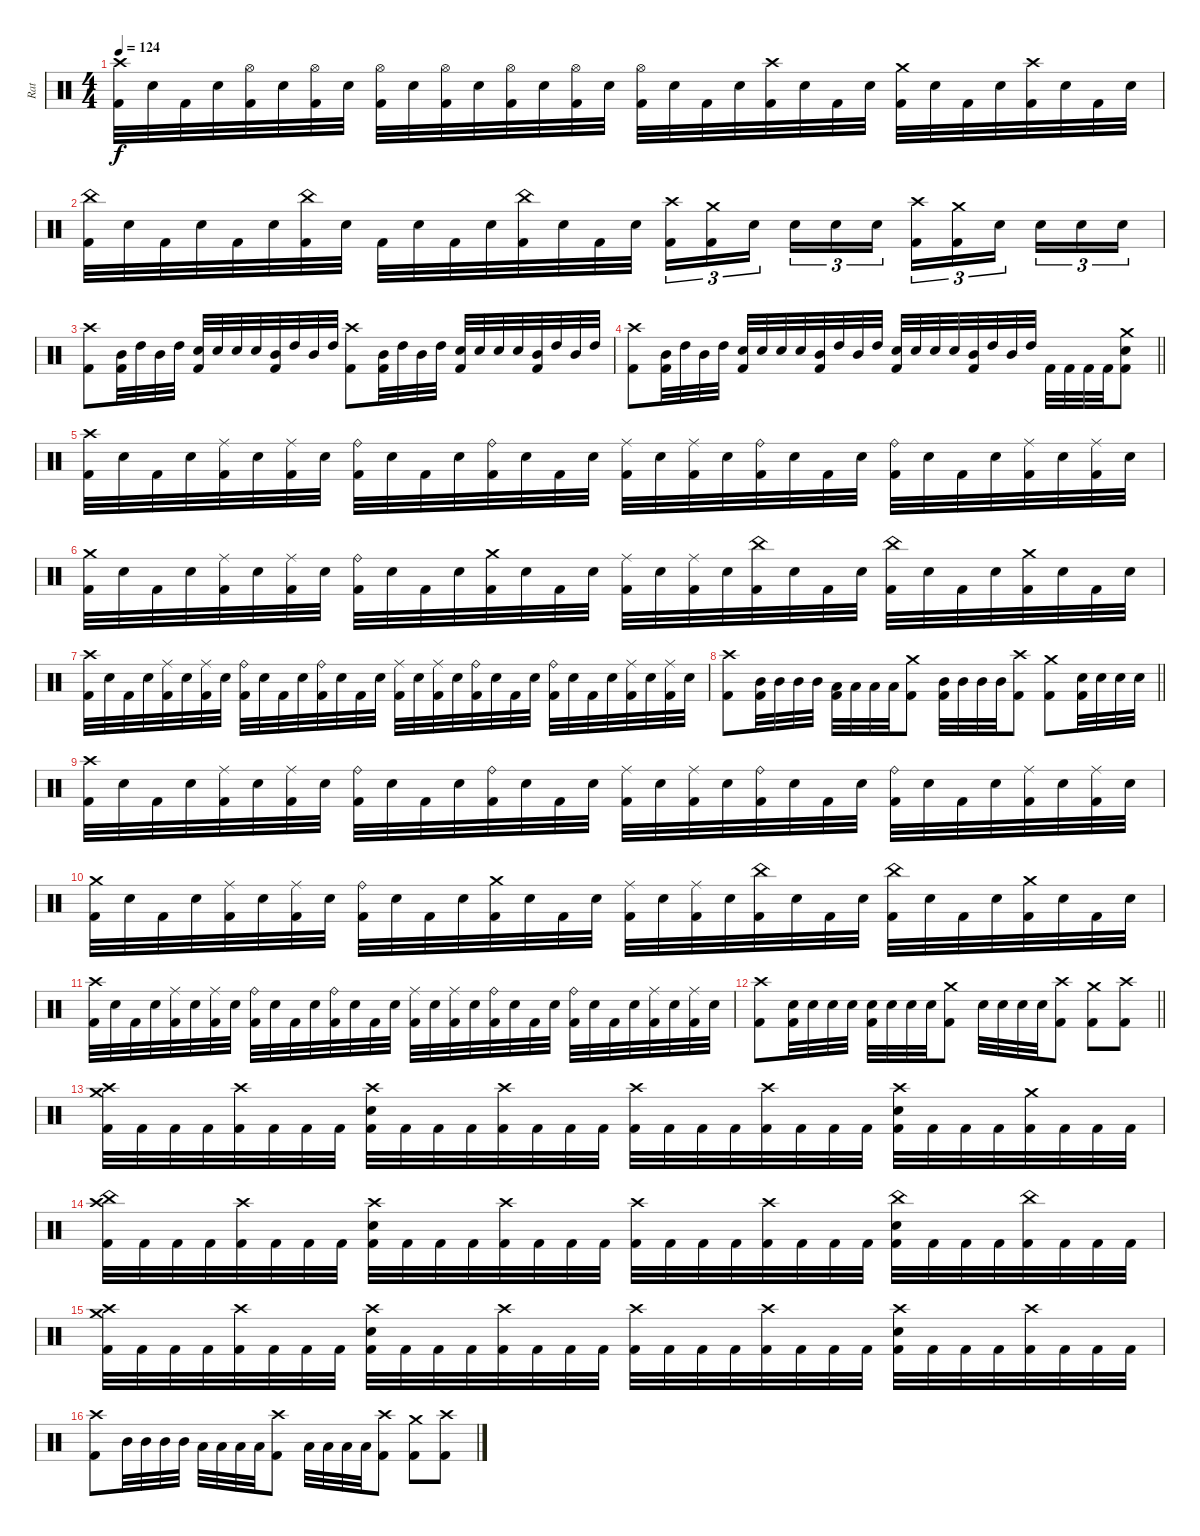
\track ("Rat" "Rat") {instrument percussion}
\staff {score}
\articulation defaults
\ts (4 4)
\tempo 124
\clef neutral
\ks c
("Crash high (hit)" "Kick (hit) 2").32{dy f} "Electric Snare (hit)".32 "Kick (hit) 2".32 "Electric Snare (hit)".32 ("Hi-Hat (open)" "Kick (hit) 2").32 "Electric Snare (hit)".32 ("Hi-Hat (open)" "Kick (hit) 2").32 "Electric Snare (hit)".32 ("Hi-Hat (open)" "Kick (hit) 2").32 "Electric Snare (hit)".32 ("Hi-Hat (open)" "Kick (hit) 2").32 "Electric Snare (hit)".32 ("Hi-Hat (open)" "Kick (hit) 2").32 "Electric Snare (hit)".32 ("Hi-Hat (open)" "Kick (hit) 2").32 "Electric Snare (hit)".32 ("Hi-Hat (open)" "Kick (hit) 2").32 "Electric Snare (hit)".32 "Kick (hit) 2".32 "Electric Snare (hit)".32 ("Crash high (hit)" "Kick (hit) 2").32 "Electric Snare (hit)".32 "Kick (hit) 2".32 "Electric Snare (hit)".32 ("Crash medium (hit)" "Kick (hit) 2").32 "Electric Snare (hit)".32 "Kick (hit) 2".32 "Electric Snare (hit)".32 ("Crash high (hit)" "Kick (hit) 2").32 "Electric Snare (hit)".32 "Kick (hit) 2".32 "Electric Snare (hit)".32 |
("China (hit)" "Kick (hit) 2").32 "Electric Snare (hit)".32 "Kick (hit) 2".32 "Electric Snare (hit)".32 "Kick (hit) 2".32 "Electric Snare (hit)".32 ("China (hit)" "Kick (hit) 2").32 "Electric Snare (hit)".32 "Kick (hit) 2".32 "Electric Snare (hit)".32 "Kick (hit) 2".32 "Electric Snare (hit)".32 ("China (hit)" "Kick (hit) 2").32 "Electric Snare (hit)".32 "Kick (hit) 2".32 "Electric Snare (hit)".32 ("Crash high (hit)" "Kick (hit) 2").16{tu (3 2)} ("Crash medium (hit)" "Kick (hit) 2").16{tu (3 2)} "Electric Snare (hit)".16{tu (3 2) beam splitsecondary} "Electric Snare (hit)".16{tu (3 2)} "Electric Snare (hit)".16{tu (3 2)} "Electric Snare (hit)".16{tu (3 2)} ("Crash high (hit)" "Kick (hit) 2").16{tu (3 2)} ("Crash medium (hit)" "Kick (hit) 2").16{tu (3 2)} "Electric Snare (hit)".16{tu (3 2) beam splitsecondary} "Electric Snare (hit)".16{tu (3 2)} "Electric Snare (hit)".16{tu (3 2)} "Electric Snare (hit)".16{tu (3 2)} |
("Crash high (hit)" "Kick (hit) 2").8 ("Mid Tom (hit)" "Kick (hit) 2").32 "High Tom (hit)".32 "Mid Tom (hit)".32 "High Tom (hit)".32 ("Electric Snare (hit)" "Kick (hit) 2").32 "Electric Snare (hit)".32 "Electric Snare (hit)".32 "Electric Snare (hit)".32 ("Mid Tom (hit)" "Kick (hit) 2").32 "High Tom (hit)".32 "Mid Tom (hit)".32 "High Tom (hit)".32 ("Crash high (hit)" "Kick (hit) 2").8 ("Mid Tom (hit)" "Kick (hit) 2").32 "High Tom (hit)".32 "Mid Tom (hit)".32 "High Tom (hit)".32 ("Electric Snare (hit)" "Kick (hit) 2").32 "Electric Snare (hit)".32 "Electric Snare (hit)".32 "Electric Snare (hit)".32 ("Mid Tom (hit)" "Kick (hit) 2").32 "High Tom (hit)".32 "Mid Tom (hit)".32 "High Tom (hit)".32 |
\barLineRight lightlight
("Crash high (hit)" "Kick (hit) 2").8 ("Mid Tom (hit)" "Kick (hit) 2").32 "High Tom (hit)".32 "Mid Tom (hit)".32 "High Tom (hit)".32 ("Electric Snare (hit)" "Kick (hit) 2").32 "Electric Snare (hit)".32 "Electric Snare (hit)".32 "Electric Snare (hit)".32 ("Mid Tom (hit)" "Kick (hit) 2").32 "High Tom (hit)".32 "Mid Tom (hit)".32 "High Tom (hit)".32 ("Electric Snare (hit)" "Kick (hit) 2").32 "Electric Snare (hit)".32 "Electric Snare (hit)".32 "Electric Snare (hit)".32 ("Mid Tom (hit)" "Kick (hit) 2").32 "High Tom (hit)".32 "Mid Tom (hit)".32 "High Tom (hit)".32 "Kick (hit) 2".32 "Kick (hit) 2".32 "Kick (hit) 2".32 "Kick (hit) 2".32 ("Crash medium (hit)" "Electric Snare (hit)" "Kick (hit) 2").8 |
("Crash high (hit)" "Kick (hit) 2").32 "Electric Snare (hit)".32 "Kick (hit) 2".32 "Electric Snare (hit)".32 ("Ride (middle)" "Kick (hit) 2").32 "Electric Snare (hit)".32 ("Ride (middle)" "Kick (hit) 2").32 "Electric Snare (hit)".32 ("Ride (bell)" "Kick (hit) 2").32 "Electric Snare (hit)".32 "Kick (hit) 2".32 "Electric Snare (hit)".32 ("Ride (bell)" "Kick (hit) 2").32 "Electric Snare (hit)".32 "Kick (hit) 2".32 "Electric Snare (hit)".32 ("Ride (middle)" "Kick (hit) 2").32 "Electric Snare (hit)".32 ("Ride (middle)" "Kick (hit) 2").32 "Electric Snare (hit)".32 ("Ride (bell)" "Kick (hit) 2").32 "Electric Snare (hit)".32 "Kick (hit) 2".32 "Electric Snare (hit)".32 ("Ride (bell)" "Kick (hit) 2").32 "Electric Snare (hit)".32 "Kick (hit) 2".32 "Electric Snare (hit)".32 ("Ride (middle)" "Kick (hit) 2").32 "Electric Snare (hit)".32 ("Ride (middle)" "Kick (hit) 2").32 "Electric Snare (hit)".32 |
("Crash medium (hit)" "Kick (hit) 2").32 "Electric Snare (hit)".32 "Kick (hit) 2".32 "Electric Snare (hit)".32 ("Ride (middle)" "Kick (hit) 2").32 "Electric Snare (hit)".32 ("Ride (middle)" "Kick (hit) 2").32 "Electric Snare (hit)".32 ("Ride (bell)" "Kick (hit) 2").32 "Electric Snare (hit)".32 "Kick (hit) 2".32 "Electric Snare (hit)".32 ("Crash medium (hit)" "Kick (hit) 2").32 "Electric Snare (hit)".32 "Kick (hit) 2".32 "Electric Snare (hit)".32 ("Ride (middle)" "Kick (hit) 2").32 "Electric Snare (hit)".32 ("Ride (middle)" "Kick (hit) 2").32 "Electric Snare (hit)".32 ("China (hit)" "Kick (hit) 2").32 "Electric Snare (hit)".32 "Kick (hit) 2".32 "Electric Snare (hit)".32 ("China (hit)" "Kick (hit) 2").32 "Electric Snare (hit)".32 "Kick (hit) 2".32 "Electric Snare (hit)".32 ("Crash medium (hit)" "Kick (hit) 2").32 "Electric Snare (hit)".32 "Kick (hit) 2".32 "Electric Snare (hit)".32 |
("Crash high (hit)" "Kick (hit) 2").32 "Electric Snare (hit)".32 "Kick (hit) 2".32 "Electric Snare (hit)".32 ("Ride (middle)" "Kick (hit) 2").32 "Electric Snare (hit)".32 ("Ride (middle)" "Kick (hit) 2").32 "Electric Snare (hit)".32 ("Ride (bell)" "Kick (hit) 2").32 "Electric Snare (hit)".32 "Kick (hit) 2".32 "Electric Snare (hit)".32 ("Ride (bell)" "Kick (hit) 2").32 "Electric Snare (hit)".32 "Kick (hit) 2".32 "Electric Snare (hit)".32 ("Ride (middle)" "Kick (hit) 2").32 "Electric Snare (hit)".32 ("Ride (middle)" "Kick (hit) 2").32 "Electric Snare (hit)".32 ("Ride (bell)" "Kick (hit) 2").32 "Electric Snare (hit)".32 "Kick (hit) 2".32 "Electric Snare (hit)".32 ("Ride (bell)" "Kick (hit) 2").32 "Electric Snare (hit)".32 "Kick (hit) 2".32 "Electric Snare (hit)".32 ("Ride (middle)" "Kick (hit) 2").32 "Electric Snare (hit)".32 ("Ride (middle)" "Kick (hit) 2").32 "Electric Snare (hit)".32 |
\barLineRight lightlight
("Crash high (hit)" "Kick (hit) 2").8 ("Mid Tom (hit)" "Kick (hit) 2").32 "Mid Tom (hit)".32 "Mid Tom (hit)".32 "Mid Tom (hit)".32 ("Low Tom (hit)" "Kick (hit) 2").32 "Low Tom (hit)".32 "Low Tom (hit)".32 "Low Tom (hit)".32 ("Crash medium (hit)" "Kick (hit) 2").8 ("Mid Tom (hit)" "Kick (hit) 2").32 "Mid Tom (hit)".32 "Mid Tom (hit)".32 "Mid Tom (hit)".32 ("Crash high (hit)" "Kick (hit) 2").8 ("Crash medium (hit)" "Kick (hit) 2").8 ("Electric Snare (hit)" "Kick (hit) 2").32 "Electric Snare (hit)".32 "Electric Snare (hit)".32 "Electric Snare (hit)".32 |
("Crash high (hit)" "Kick (hit) 2").32 "Electric Snare (hit)".32 "Kick (hit) 2".32 "Electric Snare (hit)".32 ("Ride (middle)" "Kick (hit) 2").32 "Electric Snare (hit)".32 ("Ride (middle)" "Kick (hit) 2").32 "Electric Snare (hit)".32 ("Ride (bell)" "Kick (hit) 2").32 "Electric Snare (hit)".32 "Kick (hit) 2".32 "Electric Snare (hit)".32 ("Ride (bell)" "Kick (hit) 2").32 "Electric Snare (hit)".32 "Kick (hit) 2".32 "Electric Snare (hit)".32 ("Ride (middle)" "Kick (hit) 2").32 "Electric Snare (hit)".32 ("Ride (middle)" "Kick (hit) 2").32 "Electric Snare (hit)".32 ("Ride (bell)" "Kick (hit) 2").32 "Electric Snare (hit)".32 "Kick (hit) 2".32 "Electric Snare (hit)".32 ("Ride (bell)" "Kick (hit) 2").32 "Electric Snare (hit)".32 "Kick (hit) 2".32 "Electric Snare (hit)".32 ("Ride (middle)" "Kick (hit) 2").32 "Electric Snare (hit)".32 ("Ride (middle)" "Kick (hit) 2").32 "Electric Snare (hit)".32 |
("Crash medium (hit)" "Kick (hit) 2").32 "Electric Snare (hit)".32 "Kick (hit) 2".32 "Electric Snare (hit)".32 ("Ride (middle)" "Kick (hit) 2").32 "Electric Snare (hit)".32 ("Ride (middle)" "Kick (hit) 2").32 "Electric Snare (hit)".32 ("Ride (bell)" "Kick (hit) 2").32 "Electric Snare (hit)".32 "Kick (hit) 2".32 "Electric Snare (hit)".32 ("Crash medium (hit)" "Kick (hit) 2").32 "Electric Snare (hit)".32 "Kick (hit) 2".32 "Electric Snare (hit)".32 ("Ride (middle)" "Kick (hit) 2").32 "Electric Snare (hit)".32 ("Ride (middle)" "Kick (hit) 2").32 "Electric Snare (hit)".32 ("China (hit)" "Kick (hit) 2").32 "Electric Snare (hit)".32 "Kick (hit) 2".32 "Electric Snare (hit)".32 ("China (hit)" "Kick (hit) 2").32 "Electric Snare (hit)".32 "Kick (hit) 2".32 "Electric Snare (hit)".32 ("Crash medium (hit)" "Kick (hit) 2").32 "Electric Snare (hit)".32 "Kick (hit) 2".32 "Electric Snare (hit)".32 |
("Crash high (hit)" "Kick (hit) 2").32 "Electric Snare (hit)".32 "Kick (hit) 2".32 "Electric Snare (hit)".32 ("Ride (middle)" "Kick (hit) 2").32 "Electric Snare (hit)".32 ("Ride (middle)" "Kick (hit) 2").32 "Electric Snare (hit)".32 ("Ride (bell)" "Kick (hit) 2").32 "Electric Snare (hit)".32 "Kick (hit) 2".32 "Electric Snare (hit)".32 ("Ride (bell)" "Kick (hit) 2").32 "Electric Snare (hit)".32 "Kick (hit) 2".32 "Electric Snare (hit)".32 ("Ride (middle)" "Kick (hit) 2").32 "Electric Snare (hit)".32 ("Ride (middle)" "Kick (hit) 2").32 "Electric Snare (hit)".32 ("Ride (bell)" "Kick (hit) 2").32 "Electric Snare (hit)".32 "Kick (hit) 2".32 "Electric Snare (hit)".32 ("Ride (bell)" "Kick (hit) 2").32 "Electric Snare (hit)".32 "Kick (hit) 2".32 "Electric Snare (hit)".32 ("Ride (middle)" "Kick (hit) 2").32 "Electric Snare (hit)".32 ("Ride (middle)" "Kick (hit) 2").32 "Electric Snare (hit)".32 |
\barLineRight lightlight
("Crash high (hit)" "Kick (hit) 2").8 ("Electric Snare (hit)" "Kick (hit) 2").32 "Electric Snare (hit)".32 "Electric Snare (hit)".32 "Electric Snare (hit)".32 ("Electric Snare (hit)" "Kick (hit) 2").32 "Electric Snare (hit)".32 "Electric Snare (hit)".32 "Electric Snare (hit)".32 ("Crash medium (hit)" "Kick (hit) 2").8 "Electric Snare (hit)".32 "Electric Snare (hit)".32 "Electric Snare (hit)".32 "Electric Snare (hit)".32 ("Crash high (hit)" "Kick (hit) 2").8 ("Crash medium (hit)" "Kick (hit) 2").8 ("Crash high (hit)" "Kick (hit) 2").8 |
("Crash high (hit)" "Crash medium (hit)" "Kick (hit) 2").32 "Kick (hit) 2".32 "Kick (hit) 2".32 "Kick (hit) 2".32 ("Crash high (hit)" "Kick (hit) 2").32 "Kick (hit) 2".32 "Kick (hit) 2".32 "Kick (hit) 2".32 ("Crash high (hit)" "Electric Snare (hit)" "Kick (hit) 2").32 "Kick (hit) 2".32 "Kick (hit) 2".32 "Kick (hit) 2".32 ("Crash high (hit)" "Kick (hit) 2").32 "Kick (hit) 2".32 "Kick (hit) 2".32 "Kick (hit) 2".32 ("Crash high (hit)" "Kick (hit) 2").32 "Kick (hit) 2".32 "Kick (hit) 2".32 "Kick (hit) 2".32 ("Crash high (hit)" "Kick (hit) 2").32 "Kick (hit) 2".32 "Kick (hit) 2".32 "Kick (hit) 2".32 ("Crash high (hit)" "Electric Snare (hit)" "Kick (hit) 2").32 "Kick (hit) 2".32 "Kick (hit) 2".32 "Kick (hit) 2".32 ("Crash medium (hit)" "Kick (hit) 2").32 "Kick (hit) 2".32 "Kick (hit) 2".32 "Kick (hit) 2".32 |
("Crash high (hit)" "China (hit)" "Kick (hit) 2").32 "Kick (hit) 2".32 "Kick (hit) 2".32 "Kick (hit) 2".32 ("Crash high (hit)" "Kick (hit) 2").32 "Kick (hit) 2".32 "Kick (hit) 2".32 "Kick (hit) 2".32 ("Crash high (hit)" "Electric Snare (hit)" "Kick (hit) 2").32 "Kick (hit) 2".32 "Kick (hit) 2".32 "Kick (hit) 2".32 ("Crash high (hit)" "Kick (hit) 2").32 "Kick (hit) 2".32 "Kick (hit) 2".32 "Kick (hit) 2".32 ("Crash high (hit)" "Kick (hit) 2").32 "Kick (hit) 2".32 "Kick (hit) 2".32 "Kick (hit) 2".32 ("Crash high (hit)" "Kick (hit) 2").32 "Kick (hit) 2".32 "Kick (hit) 2".32 "Kick (hit) 2".32 ("China (hit)" "Electric Snare (hit)" "Kick (hit) 2").32 "Kick (hit) 2".32 "Kick (hit) 2".32 "Kick (hit) 2".32 ("China (hit)" "Kick (hit) 2").32 "Kick (hit) 2".32 "Kick (hit) 2".32 "Kick (hit) 2".32 |
("Crash high (hit)" "Crash medium (hit)" "Kick (hit) 2").32 "Kick (hit) 2".32 "Kick (hit) 2".32 "Kick (hit) 2".32 ("Crash high (hit)" "Kick (hit) 2").32 "Kick (hit) 2".32 "Kick (hit) 2".32 "Kick (hit) 2".32 ("Crash high (hit)" "Electric Snare (hit)" "Kick (hit) 2").32 "Kick (hit) 2".32 "Kick (hit) 2".32 "Kick (hit) 2".32 ("Crash high (hit)" "Kick (hit) 2").32 "Kick (hit) 2".32 "Kick (hit) 2".32 "Kick (hit) 2".32 ("Crash high (hit)" "Kick (hit) 2").32 "Kick (hit) 2".32 "Kick (hit) 2".32 "Kick (hit) 2".32 ("Crash high (hit)" "Kick (hit) 2").32 "Kick (hit) 2".32 "Kick (hit) 2".32 "Kick (hit) 2".32 ("Crash high (hit)" "Electric Snare (hit)" "Kick (hit) 2").32 "Kick (hit) 2".32 "Kick (hit) 2".32 "Kick (hit) 2".32 ("Crash high (hit)" "Kick (hit) 2").32 "Kick (hit) 2".32 "Kick (hit) 2".32 "Kick (hit) 2".32 |
("Crash high (hit)" "Kick (hit) 2").8 "Mid Tom (hit)".32 "Mid Tom (hit)".32 "Mid Tom (hit)".32 "Mid Tom (hit)".32 "Low Tom (hit)".32 "Low Tom (hit)".32 "Low Tom (hit)".32 "Low Tom (hit)".32 ("Crash high (hit)" "Kick (hit) 2").8 "Low Tom (hit)".32 "Low Tom (hit)".32 "Low Tom (hit)".32 "Low Tom (hit)".32 ("Crash high (hit)" "Kick (hit) 2").8 ("Crash medium (hit)" "Kick (hit) 2").8 ("Crash high (hit)" "Kick (hit) 2").8
